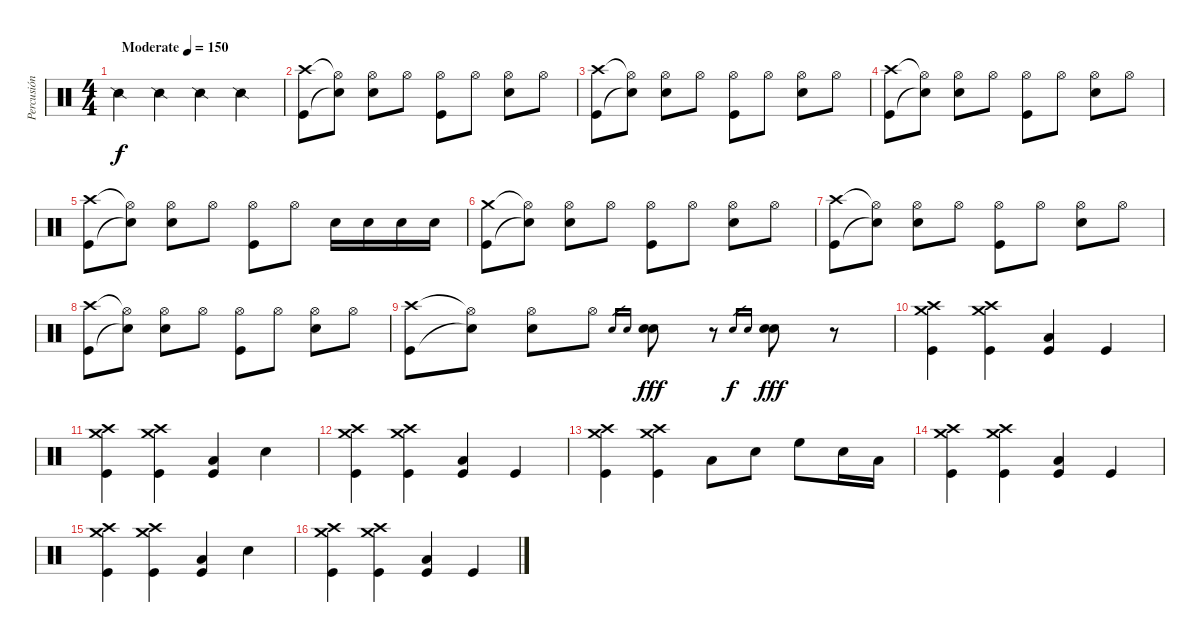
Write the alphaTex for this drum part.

\track ("Percusión" "Percusión") {instrument percussion}
\staff {score}
\articulation defaults
\ts (4 4)
\tempo (150 "Moderate")
\clef neutral
\ks c "Snare (side stick) 2".4{dy f} "Snare (side stick) 2".4 "Snare (side stick) 2".4 "Snare (side stick) 2".4
|
("Kick (hit)" "Crash high (hit)").8 ("Snare (hit)"{t} "Hi-Hat (open)"{t}).8 ("Electric Snare (hit)" "Hi-Hat (open)").8 "Hi-Hat (open)".8 ("Kick (hit)" "Hi-Hat (open)").8 "Hi-Hat (open)".8 ("Electric Snare (hit)" "Hi-Hat (open)").8 "Hi-Hat (open)".8 |
("Kick (hit)" "Crash high (hit)").8 ("Snare (hit)"{t} "Hi-Hat (open)"{t}).8 ("Electric Snare (hit)" "Hi-Hat (open)").8 "Hi-Hat (open)".8 ("Kick (hit)" "Hi-Hat (open)").8 "Hi-Hat (open)".8 ("Electric Snare (hit)" "Hi-Hat (open)").8 "Hi-Hat (open)".8 |
("Kick (hit)" "Crash high (hit)").8 ("Snare (hit)"{t} "Hi-Hat (open)"{t}).8 ("Electric Snare (hit)" "Hi-Hat (open)").8 "Hi-Hat (open)".8 ("Kick (hit)" "Hi-Hat (open)").8 "Hi-Hat (open)".8 ("Electric Snare (hit)" "Hi-Hat (open)").8 "Hi-Hat (open)".8 |
("Kick (hit)" "Crash high (hit)").8 ("Snare (hit)"{t} "Hi-Hat (open)"{t}).8 ("Electric Snare (hit)" "Hi-Hat (open)").8 "Hi-Hat (open)".8 ("Kick (hit)" "Hi-Hat (open)").8 "Hi-Hat (open)".8 "Electric Snare (hit)".16 "Electric Snare (hit)".16 "Electric Snare (hit)".16 "Electric Snare (hit)".16 |
("Kick (hit)" "Crash medium (hit)").8 ("Snare (hit)"{t} "Hi-Hat (open)"{t}).8 ("Electric Snare (hit)" "Hi-Hat (open)").8 "Hi-Hat (open)".8 ("Kick (hit)" "Hi-Hat (open)").8 "Hi-Hat (open)".8 ("Electric Snare (hit)" "Hi-Hat (open)").8 "Hi-Hat (open)".8 |
("Kick (hit)" "Crash high (hit)").8 ("Snare (hit)"{t} "Hi-Hat (open)"{t}).8 ("Electric Snare (hit)" "Hi-Hat (open)").8 "Hi-Hat (open)".8 ("Kick (hit)" "Hi-Hat (open)").8 "Hi-Hat (open)".8 ("Electric Snare (hit)" "Hi-Hat (open)").8 "Hi-Hat (open)".8 |
("Kick (hit)" "Crash high (hit)").8 ("Snare (hit)"{t} "Hi-Hat (open)"{t}).8 ("Electric Snare (hit)" "Hi-Hat (open)").8 "Hi-Hat (open)".8 ("Kick (hit)" "Hi-Hat (open)").8 "Hi-Hat (open)".8 ("Electric Snare (hit)" "Hi-Hat (open)").8 "Hi-Hat (open)".8 |
("Kick (hit)" "Crash high (hit)").8 ("Snare (hit)"{t} "Hi-Hat (open)"{t}).8 ("Electric Snare (hit)" "Hi-Hat (open)").8 "Hi-Hat (open)".8 "Electric Snare (hit)".16{gr} "Electric Snare (hit)".16{gr} ("Electric Snare (hit)" "Electric Snare (hit)").8{dy fff} r.8 "Electric Snare (hit)".16{gr dy f} "Electric Snare (hit)".16{gr} ("Electric Snare (hit)" "Electric Snare (hit)").8{dy fff} r.8 |
("Kick (hit)" "Crash high (hit)" "Crash medium (hit)").4 ("Kick (hit)" "Crash high (hit)" "Crash medium (hit)").4 ("Kick (hit)" "Low Floor Tom (hit)").4 "Kick (hit)".4 |
("Kick (hit)" "Crash high (hit)" "Crash medium (hit)").4 ("Kick (hit)" "Crash high (hit)" "Crash medium (hit)").4 ("Kick (hit)" "Low Floor Tom (hit)").4 "Electric Snare (hit)".4 |
("Kick (hit)" "Crash high (hit)" "Crash medium (hit)").4 ("Kick (hit)" "Crash high (hit)" "Crash medium (hit)").4 ("Kick (hit)" "Low Floor Tom (hit)").4 "Kick (hit)".4 |
("Kick (hit)" "Crash high (hit)" "Crash medium (hit)").4 ("Kick (hit)" "Crash high (hit)" "Crash medium (hit)").4 "Low Floor Tom (hit)".8 "Electric Snare (hit)".8 "High Floor Tom (hit)".8 "Electric Snare (hit)".16 "Low Floor Tom (hit)".16 |
("Kick (hit)" "Crash high (hit)" "Crash medium (hit)").4 ("Kick (hit)" "Crash high (hit)" "Crash medium (hit)").4 ("Kick (hit)" "Low Floor Tom (hit)").4 "Kick (hit)".4 |
("Kick (hit)" "Crash high (hit)" "Crash medium (hit)").4 ("Kick (hit)" "Crash high (hit)" "Crash medium (hit)").4 ("Kick (hit)" "Low Floor Tom (hit)").4 "Electric Snare (hit)".4 |
("Kick (hit)" "Crash high (hit)" "Crash medium (hit)").4 ("Kick (hit)" "Crash high (hit)" "Crash medium (hit)").4 ("Kick (hit)" "Low Floor Tom (hit)").4 "Kick (hit)".4
